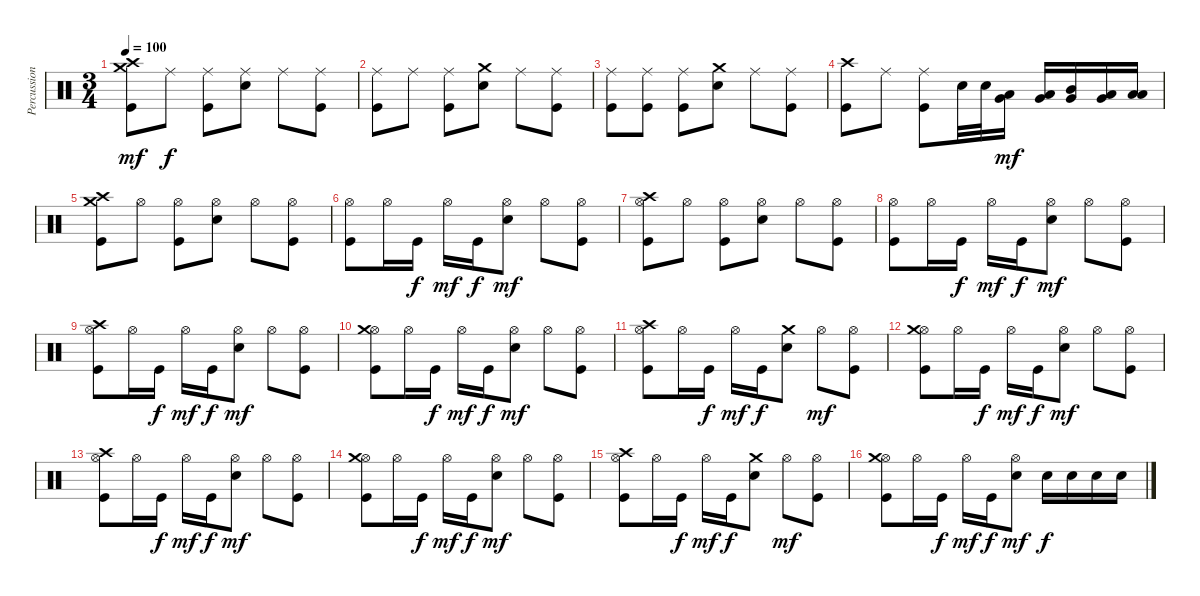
\track ("Percussions" "Percussion") {instrument percussion}
\staff {score}
\articulation defaults
\ts (3 4)
\tempo 100
\clef neutral
\ks c
("Kick (hit)" "Crash medium (hit)" "Crash high (hit)").8{dy mf} "Ride (middle)".8{dy f} ("Kick (hit)" "Ride (middle)").8 ("Electric Snare (hit)" "Ride (middle)").8 "Ride (middle)".8 ("Kick (hit)" "Ride (middle)").8 |
("Kick (hit)" "Ride (middle)").8 "Ride (middle)".8 ("Kick (hit)" "Ride (middle)").8 ("Electric Snare (hit)" "Crash medium (hit)").8 "Ride (middle)".8 ("Kick (hit)" "Ride (middle)").8 |
("Kick (hit)" "Ride (middle)").8 ("Kick (hit)" "Ride (middle)").8 ("Kick (hit)" "Ride (middle)").8 ("Electric Snare (hit)" "Crash medium (hit)").8 "Ride (middle)".8 ("Kick (hit)" "Ride (middle)").8 |
("Kick (hit)" "Crash high (hit)").8 "Ride (middle)".8 ("Kick (hit)" "Ride (middle)").8 "Electric Snare (hit)".32 "Electric Snare (hit)".32 ("Very Low Tom (hit)" "Low Tom (hit)").16{dy mf} ("Very Low Tom (hit)" "Low Tom (hit)").16 ("Very Low Tom (hit)" "Mid Tom (hit)").16 ("Low Floor Tom (hit)" "Very Low Tom (hit)").16 ("Low Floor Tom (hit)" "Low Tom (hit)").16 |
("Kick (hit)" "Crash high (hit)" "Crash medium (hit)").8 "Hi-Hat (open)".8 ("Kick (hit)" "Hi-Hat (open)").8 ("Electric Snare (hit)" "Hi-Hat (open)").8 "Hi-Hat (open)".8 ("Kick (hit)" "Hi-Hat (open)").8 |
("Kick (hit)" "Hi-Hat (open)").8 "Hi-Hat (open)".16 "Kick (hit)".16{dy f} "Hi-Hat (open)".16{dy mf} "Kick (hit)".16{dy f} ("Electric Snare (hit)" "Hi-Hat (open)").8{dy mf} "Hi-Hat (open)".8 ("Kick (hit)" "Hi-Hat (open)").8 |
("Kick (hit)" "Hi-Hat (open)" "Crash high (hit)").8 "Hi-Hat (open)".8 ("Kick (hit)" "Hi-Hat (open)").8 ("Electric Snare (hit)" "Hi-Hat (open)").8 "Hi-Hat (open)".8 ("Kick (hit)" "Hi-Hat (open)").8 |
("Kick (hit)" "Hi-Hat (open)").8 "Hi-Hat (open)".16 "Kick (hit)".16{dy f} "Hi-Hat (open)".16{dy mf} "Kick (hit)".16{dy f} ("Electric Snare (hit)" "Hi-Hat (open)").8{dy mf} "Hi-Hat (open)".8 ("Kick (hit)" "Hi-Hat (open)").8 |
("Kick (hit)" "Hi-Hat (open)" "Crash high (hit)").8 "Hi-Hat (open)".16 "Kick (hit)".16{dy f} "Hi-Hat (open)".16{dy mf} "Kick (hit)".16{dy f} ("Electric Snare (hit)" "Hi-Hat (open)").8{dy mf} "Hi-Hat (open)".8 ("Kick (hit)" "Hi-Hat (open)").8 |
("Kick (hit)" "Hi-Hat (open)" "Crash medium (hit)").8 "Hi-Hat (open)".16 "Kick (hit)".16{dy f} "Hi-Hat (open)".16{dy mf} "Kick (hit)".16{dy f} ("Electric Snare (hit)" "Hi-Hat (open)").8{dy mf} "Hi-Hat (open)".8 ("Kick (hit)" "Hi-Hat (open)").8 |
("Kick (hit)" "Hi-Hat (open)" "Crash high (hit)").8 "Hi-Hat (open)".16 "Kick (hit)".16{dy f} "Hi-Hat (open)".16{dy mf} "Kick (hit)".16{dy f} ("Electric Snare (hit)" "Crash medium (hit)").8 "Hi-Hat (open)".8{dy mf} ("Kick (hit)" "Hi-Hat (open)").8 |
("Kick (hit)" "Hi-Hat (open)" "Crash medium (hit)").8 "Hi-Hat (open)".16 "Kick (hit)".16{dy f} "Hi-Hat (open)".16{dy mf} "Kick (hit)".16{dy f} ("Electric Snare (hit)" "Hi-Hat (open)").8{dy mf} "Hi-Hat (open)".8 ("Kick (hit)" "Hi-Hat (open)").8 |
("Kick (hit)" "Hi-Hat (open)" "Crash high (hit)").8 "Hi-Hat (open)".16 "Kick (hit)".16{dy f} "Hi-Hat (open)".16{dy mf} "Kick (hit)".16{dy f} ("Electric Snare (hit)" "Hi-Hat (open)").8{dy mf} "Hi-Hat (open)".8 ("Kick (hit)" "Hi-Hat (open)").8 |
("Kick (hit)" "Hi-Hat (open)" "Crash medium (hit)").8 "Hi-Hat (open)".16 "Kick (hit)".16{dy f} "Hi-Hat (open)".16{dy mf} "Kick (hit)".16{dy f} ("Electric Snare (hit)" "Hi-Hat (open)").8{dy mf} "Hi-Hat (open)".8 ("Kick (hit)" "Hi-Hat (open)").8 |
("Kick (hit)" "Hi-Hat (open)" "Crash high (hit)").8 "Hi-Hat (open)".16 "Kick (hit)".16{dy f} "Hi-Hat (open)".16{dy mf} "Kick (hit)".16{dy f} ("Electric Snare (hit)" "Crash medium (hit)").8 "Hi-Hat (open)".8{dy mf} ("Kick (hit)" "Hi-Hat (open)").8 |
("Kick (hit)" "Hi-Hat (open)" "Crash medium (hit)").8 "Hi-Hat (open)".16 "Kick (hit)".16{dy f} "Hi-Hat (open)".16{dy mf} "Kick (hit)".16{dy f} ("Electric Snare (hit)" "Hi-Hat (open)").8{dy mf} "Electric Snare (hit)".16{dy f} "Electric Snare (hit)".16 "Electric Snare (hit)".16 "Electric Snare (hit)".16
